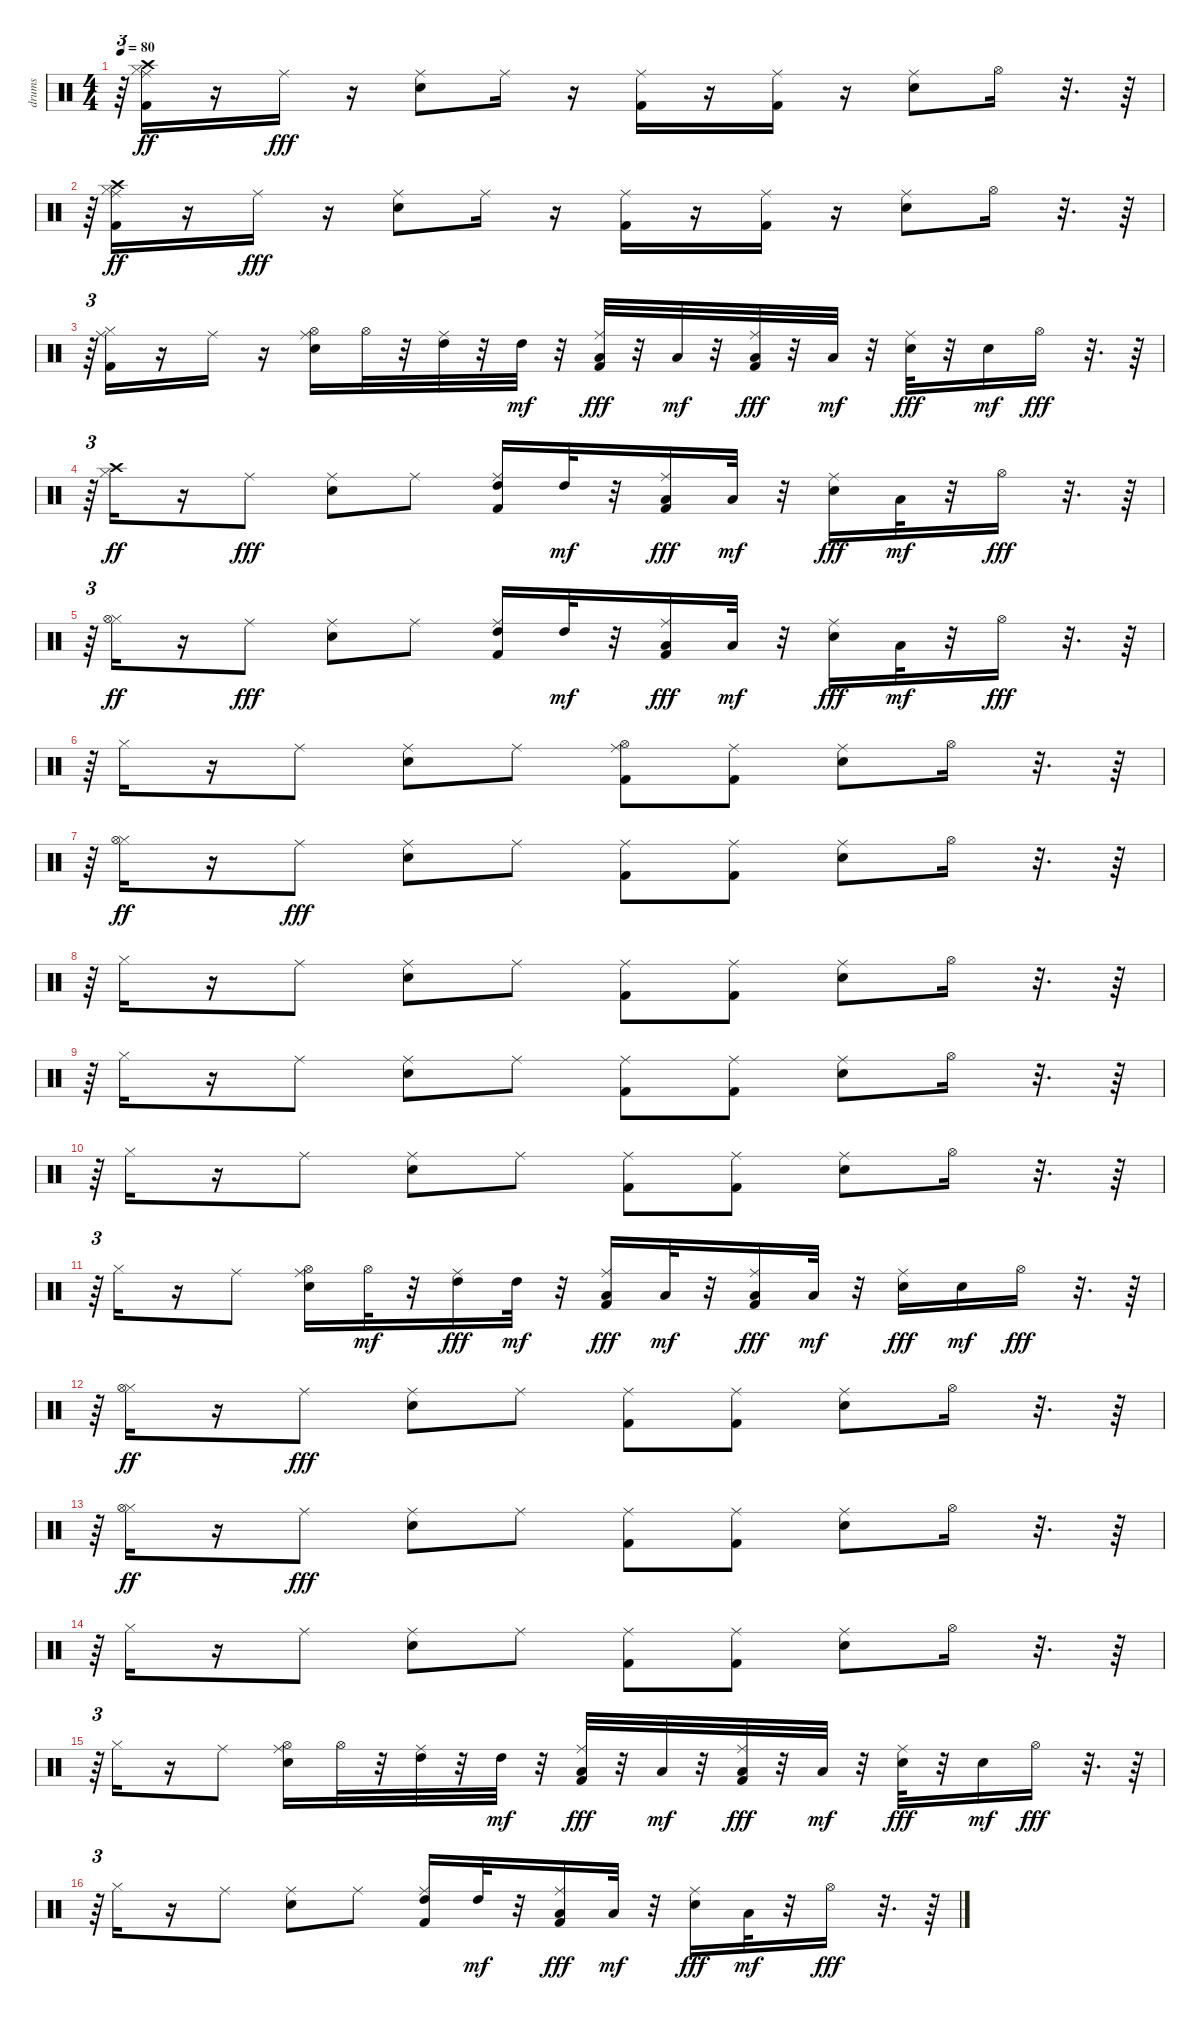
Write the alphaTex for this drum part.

\track ("drums               " "drums     ") {instrument percussion}
\staff {score}
\articulation defaults
\ts (4 4)
\tempo 80
\clef neutral
\ks c
r.64{tu (3 2) dy fff} ("Kick (hit) 2" "Ride (middle)" "Hi-Hat (closed)" "Crash high (hit)").16{dy ff} r.16 "Ride (middle)".16{dy fff} r.16 ("Snare (hit) 2" "Ride (middle)").8 "Ride (middle)".16 r.16 ("Kick (hit) 2" "Ride (middle)").16 r.16 ("Kick (hit) 2" "Ride (middle)").16 r.16 ("Snare (hit) 2" "Ride (middle)").8 "Hi-Hat (open)".16 r.32{d} r.64 |
r.64{tu (3 2)} ("Kick (hit) 2" "Ride (middle)" "Hi-Hat (closed)" "Crash high (hit)").16{dy ff} r.16 "Ride (middle)".16{dy fff} r.16 ("Snare (hit) 2" "Ride (middle)").8 "Ride (middle)".16 r.16 ("Kick (hit) 2" "Ride (middle)").16 r.16 ("Kick (hit) 2" "Ride (middle)").16 r.16 ("Snare (hit) 2" "Ride (middle)").8 "Hi-Hat (open)".16 r.32{d} r.64 |
r.64{tu (3 2)} ("Kick (hit) 2" "Ride (middle)" "Hi-Hat (closed)").16 r.16 "Ride (middle)".16 r.16 ("Snare (hit) 2" "Hi-Hat (open)" "Ride (middle)").16 "Hi-Hat (open)".32 r.32 ("High Tom (hit)" "Ride (middle)").32 r.32 "High Tom (hit)".32{dy mf} r.32 ("Kick (hit) 2" "Low Tom (hit)" "Ride (middle)").32{dy fff} r.32 "Low Tom (hit)".32{dy mf} r.32 ("Kick (hit) 2" "Low Floor Tom (hit)" "Ride (middle)").32{dy fff} r.32 "Low Floor Tom (hit)".32{dy mf} r.32 ("Snare (hit) 2" "Ride (middle)").32{dy fff} r.32 "Snare (hit) 2".16{dy mf} "Hi-Hat (open)".16{dy fff} r.32{d} r.64 |
r.64{tu (3 2)} ("Hi-Hat (closed)" "Crash high (hit)").16{dy ff} r.16 "Ride (middle)".8{dy fff} ("Snare (hit) 2" "Ride (middle)").8 "Ride (middle)".8 ("Kick (hit) 2" "High Tom (hit)" "Ride (middle)").16 "High Tom (hit)".32{dy mf} r.32 ("Kick (hit) 2" "Low Tom (hit)" "Ride (middle)").16{dy fff} "Low Tom (hit)".32{dy mf} r.32 ("Snare (hit) 2" "Ride (middle)").16{dy fff} "Low Floor Tom (hit)".32{dy mf} r.32 "Hi-Hat (open)".16{dy fff} r.32{d} r.64 |
r.64{tu (3 2)} ("Hi-Hat (closed)" "Hi-Hat (open)").16{dy ff} r.16 "Ride (middle)".8{dy fff} ("Snare (hit) 2" "Ride (middle)").8 "Ride (middle)".8 ("Kick (hit) 2" "High Tom (hit)" "Ride (middle)").16 "High Tom (hit)".32{dy mf} r.32 ("Kick (hit) 2" "Low Tom (hit)" "Ride (middle)").16{dy fff} "Low Tom (hit)".32{dy mf} r.32 ("Snare (hit) 2" "Ride (middle)").16{dy fff} "Low Floor Tom (hit)".32{dy mf} r.32 "Hi-Hat (open)".16{dy fff} r.32{d} r.64 |
r.64{tu (3 2)} "Hi-Hat (closed)".16 r.16 "Ride (middle)".8 ("Snare (hit) 2" "Ride (middle)").8 "Ride (middle)".8 ("Kick (hit) 2" "Hi-Hat (open)" "Ride (middle)").8 ("Kick (hit) 2" "Ride (middle)").8 ("Snare (hit) 2" "Ride (middle)").8 "Hi-Hat (open)".16 r.32{d} r.64 |
r.64{tu (3 2)} ("Hi-Hat (closed)" "Hi-Hat (open)").16{dy ff} r.16 "Ride (middle)".8{dy fff} ("Snare (hit) 2" "Ride (middle)").8 "Ride (middle)".8 ("Kick (hit) 2" "Ride (middle)").8 ("Kick (hit) 2" "Ride (middle)").8 ("Snare (hit) 2" "Ride (middle)").8 "Hi-Hat (open)".16 r.32{d} r.64 |
r.64{tu (3 2)} "Hi-Hat (closed)".16 r.16 "Ride (middle)".8 ("Snare (hit) 2" "Ride (middle)").8 "Ride (middle)".8 ("Kick (hit) 2" "Ride (middle)").8 ("Kick (hit) 2" "Ride (middle)").8 ("Snare (hit) 2" "Ride (middle)").8 "Hi-Hat (open)".16 r.32{d} r.64 |
r.64{tu (3 2)} "Hi-Hat (closed)".16 r.16 "Ride (middle)".8 ("Snare (hit) 2" "Ride (middle)").8 "Ride (middle)".8 ("Kick (hit) 2" "Ride (middle)").8 ("Kick (hit) 2" "Ride (middle)").8 ("Snare (hit) 2" "Ride (middle)").8 "Hi-Hat (open)".16 r.32{d} r.64 |
r.64{tu (3 2)} "Hi-Hat (closed)".16 r.16 "Ride (middle)".8 ("Snare (hit) 2" "Ride (middle)").8 "Ride (middle)".8 ("Kick (hit) 2" "Ride (middle)").8 ("Kick (hit) 2" "Ride (middle)").8 ("Snare (hit) 2" "Ride (middle)").8 "Hi-Hat (open)".16 r.32{d} r.64 |
r.64{tu (3 2)} "Hi-Hat (closed)".16 r.16 "Ride (middle)".8 ("Snare (hit) 2" "Hi-Hat (open)" "Ride (middle)").16 "Hi-Hat (open)".32{dy mf} r.32 ("High Tom (hit)" "Ride (middle)").16{dy fff} "High Tom (hit)".32{dy mf} r.32 ("Kick (hit) 2" "Low Tom (hit)" "Ride (middle)").16{dy fff} "Low Tom (hit)".32{dy mf} r.32 ("Kick (hit) 2" "Low Floor Tom (hit)" "Ride (middle)").16{dy fff} "Low Floor Tom (hit)".32{dy mf} r.32 ("Snare (hit) 2" "Ride (middle)").16{dy fff} "Snare (hit) 2".16{dy mf} "Hi-Hat (open)".16{dy fff} r.32{d} r.64 |
r.64{tu (3 2)} ("Hi-Hat (closed)" "Hi-Hat (open)").16{dy ff} r.16 "Ride (middle)".8{dy fff} ("Snare (hit) 2" "Ride (middle)").8 "Ride (middle)".8 ("Kick (hit) 2" "Ride (middle)").8 ("Kick (hit) 2" "Ride (middle)").8 ("Snare (hit) 2" "Ride (middle)").8 "Hi-Hat (open)".16 r.32{d} r.64 |
r.64{tu (3 2)} ("Hi-Hat (closed)" "Hi-Hat (open)").16{dy ff} r.16 "Ride (middle)".8{dy fff} ("Snare (hit) 2" "Ride (middle)").8 "Ride (middle)".8 ("Kick (hit) 2" "Ride (middle)").8 ("Kick (hit) 2" "Ride (middle)").8 ("Snare (hit) 2" "Ride (middle)").8 "Hi-Hat (open)".16 r.32{d} r.64 |
r.64{tu (3 2)} "Hi-Hat (closed)".16 r.16 "Ride (middle)".8 ("Snare (hit) 2" "Ride (middle)").8 "Ride (middle)".8 ("Kick (hit) 2" "Ride (middle)").8 ("Kick (hit) 2" "Ride (middle)").8 ("Snare (hit) 2" "Ride (middle)").8 "Hi-Hat (open)".16 r.32{d} r.64 |
r.64{tu (3 2)} "Hi-Hat (closed)".16 r.16 "Ride (middle)".8 ("Snare (hit) 2" "Hi-Hat (open)" "Ride (middle)").16 "Hi-Hat (open)".32 r.32 ("High Tom (hit)" "Ride (middle)").32 r.32 "High Tom (hit)".32{dy mf} r.32 ("Kick (hit) 2" "Low Tom (hit)" "Ride (middle)").32{dy fff} r.32 "Low Tom (hit)".32{dy mf} r.32 ("Kick (hit) 2" "Low Floor Tom (hit)" "Ride (middle)").32{dy fff} r.32 "Low Floor Tom (hit)".32{dy mf} r.32 ("Snare (hit) 2" "Ride (middle)").32{dy fff} r.32 "Snare (hit) 2".16{dy mf} "Hi-Hat (open)".16{dy fff} r.32{d} r.64 |
r.64{tu (3 2)} "Hi-Hat (closed)".16 r.16 "Ride (middle)".8 ("Snare (hit) 2" "Ride (middle)").8 "Ride (middle)".8 ("Kick (hit) 2" "High Tom (hit)" "Ride (middle)").16 "High Tom (hit)".32{dy mf} r.32 ("Kick (hit) 2" "Low Tom (hit)" "Ride (middle)").16{dy fff} "Low Tom (hit)".32{dy mf} r.32 ("Snare (hit) 2" "Ride (middle)").16{dy fff} "Low Floor Tom (hit)".32{dy mf} r.32 "Hi-Hat (open)".16{dy fff} r.32{d} r.64
